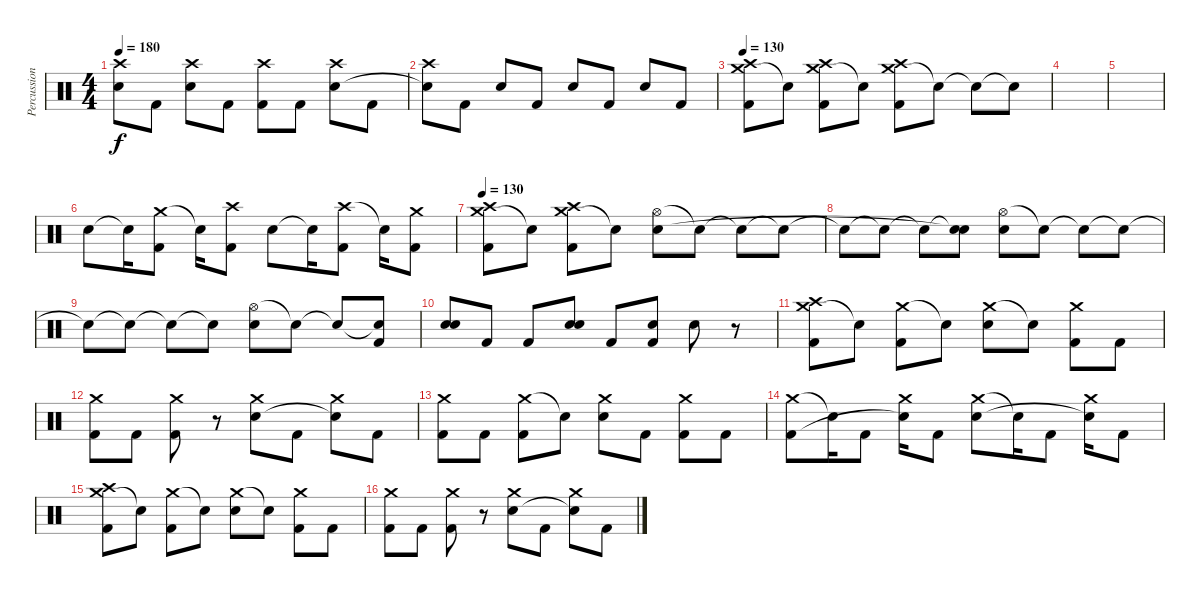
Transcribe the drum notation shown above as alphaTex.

\track ("Percussion" "Percussion") {instrument percussion}
\staff {score}
\articulation defaults
\ts (4 4)
\tempo 180
\clef neutral
\ks c
("Crash high (hit)" "Snare (hit)"{t}).8{dy f} "Kick (hit) 2".8 ("Crash high (hit)" "Snare (hit) 2").8 "Kick (hit) 2".8 ("Crash high (hit)" "Kick (hit) 2").8 "Kick (hit) 2".8 ("Crash high (hit)" "Snare (hit) 2").8 "Kick (hit) 2".8 |
("Crash high (hit)" "Snare (hit)"{t}).8 "Kick (hit) 2".8 "Snare (hit) 2".8 "Kick (hit) 2".8 "Snare (hit) 2".8 "Kick (hit) 2".8 "Snare (hit) 2".8 "Kick (hit) 2".8 |
\tempo 130
("Crash medium (hit)" "Crash high (hit)" "Kick (hit) 2").8 "Snare (hit)"{t}.8 ("Crash medium (hit)" "Crash high (hit)" "Kick (hit) 2").8 "Snare (hit)"{t}.8 ("Crash medium (hit)" "Crash high (hit)" "Kick (hit) 2").8 "Snare (hit)"{t}.8 "Snare (hit)"{t}.8 "Snare (hit)"{t}.8 |
|
|
"Snare (hit) 2".8 "Snare (hit)"{t}.16 ("Crash medium (hit)" "Kick (hit) 2").8 "Snare (hit)"{t}.16 ("Crash high (hit)" "Kick (hit) 2").8 "Snare (hit) 2".8 "Snare (hit)"{t}.16 ("Crash high (hit)" "Kick (hit) 2").8 "Snare (hit)"{t}.16 ("Crash medium (hit)" "Kick (hit) 2").8 |
\tempo 130
("Crash medium (hit)" "Crash high (hit)" "Kick (hit) 2").8 "Snare (hit)"{t}.8 ("Crash medium (hit)" "Crash high (hit)" "Kick (hit) 2").8 "Snare (hit)"{t}.8 ("Hi-Hat (open)" "Snare (hit) 2").8 "Snare (hit)"{t}.8 "Snare (hit)"{t}.8 "Snare (hit)"{t}.8 |
"Snare (hit)"{t}.8 "Snare (hit)"{t}.8 "Snare (hit)"{t}.8 ("Snare (hit)"{t} "Snare (hit)"{t}).8 ("Hi-Hat (open)" "Snare (hit) 2").8 "Snare (hit)"{t}.8 "Snare (hit)"{t}.8 "Snare (hit)"{t}.8 |
"Snare (hit)"{t}.8 "Snare (hit)"{t}.8 "Snare (hit)"{t}.8 "Snare (hit)"{t}.8 ("Hi-Hat (open)" "Snare (hit) 2").8 "Snare (hit)"{t}.8 "Snare (hit)"{t}.8 ("Snare (hit)"{t} "Kick (hit) 2").8 |
("Snare (hit) 2" "Snare (hit) 2").8 "Kick (hit) 2".8 "Kick (hit) 2".8 ("Snare (hit) 2" "Snare (hit) 2").8 "Kick (hit) 2".8 ("Snare (hit) 2" "Kick (hit) 2").8 "Snare (hit) 2".8 r.8 |
("Crash medium (hit)" "Crash high (hit)" "Kick (hit) 2").8 "Snare (hit)"{t}.8 ("Crash medium (hit)" "Kick (hit) 2").8 "Snare (hit)"{t}.8 ("Crash medium (hit)" "Snare (hit) 2").8 "Snare (hit)"{t}.8 ("Crash medium (hit)" "Kick (hit) 2").8 "Kick (hit) 2".8 |
("Crash medium (hit)" "Kick (hit) 2").8 "Kick (hit) 2".8 ("Crash medium (hit)" "Kick (hit) 2").8 r.8 ("Crash medium (hit)" "Snare (hit) 2").8 "Kick (hit) 2".8 ("Crash medium (hit)" "Snare (hit)"{t}).8 "Kick (hit) 2".8 |
("Crash medium (hit)" "Kick (hit) 2").8 "Kick (hit) 2".8 ("Crash medium (hit)" "Kick (hit) 2").8 "Snare (hit)"{t}.8 ("Crash medium (hit)" "Snare (hit) 2").8 "Kick (hit) 2".8 ("Crash medium (hit)" "Kick (hit) 2").8 "Kick (hit) 2".8 |
("Crash medium (hit)" "Kick (hit) 2").8 "Snare (hit)"{t}.16 "Kick (hit) 2".8 ("Crash medium (hit)" "Snare (hit)"{t}).16 "Kick (hit) 2".8 ("Crash medium (hit)" "Snare (hit) 2").8 "Snare (hit)"{t}.16 "Kick (hit) 2".8 ("Crash medium (hit)" "Snare (hit)"{t}).16 "Kick (hit) 2".8 |
("Crash medium (hit)" "Crash high (hit)" "Kick (hit) 2").8 "Snare (hit)"{t}.8 ("Crash medium (hit)" "Kick (hit) 2").8 "Snare (hit)"{t}.8 ("Crash medium (hit)" "Snare (hit) 2").8 "Snare (hit)"{t}.8 ("Crash medium (hit)" "Kick (hit) 2").8 "Kick (hit) 2".8 |
("Crash medium (hit)" "Kick (hit) 2").8 "Kick (hit) 2".8 ("Crash medium (hit)" "Kick (hit) 2").8 r.8 ("Crash medium (hit)" "Snare (hit) 2").8 "Kick (hit) 2".8 ("Crash medium (hit)" "Snare (hit)"{t}).8 "Kick (hit) 2".8
